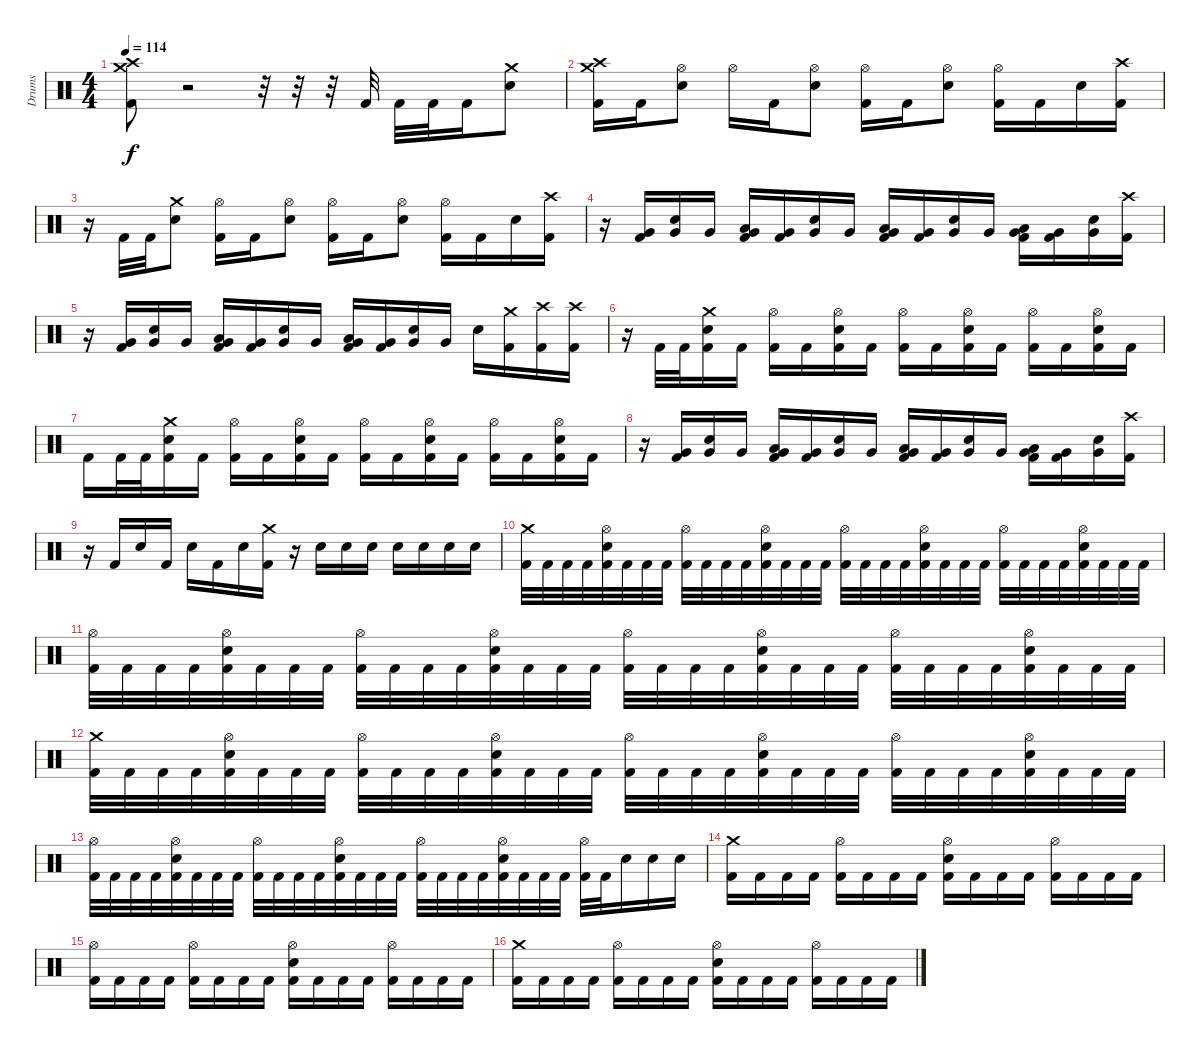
\track ("Drums" "Drums") {instrument percussion}
\staff {score}
\articulation defaults
\ts (4 4)
\tempo 114
\clef neutral
\ks c
("Crash high (hit)" "Crash medium (hit)" "Kick (hit) 2").8{dy f} r.2 r.32 r.32 r.32 "Kick (hit) 2".32 "Kick (hit) 2".32 "Kick (hit) 2".32 "Kick (hit) 2".16 ("Crash medium (hit)" "Snare (hit) 2").8 |
("Crash high (hit)" "Crash medium (hit)" "Kick (hit) 2").16 "Kick (hit) 2".16 ("Hi-Hat (open)" "Snare (hit) 2").8 "Hi-Hat (open)".16 "Kick (hit) 2".16 ("Hi-Hat (open)" "Snare (hit) 2").8 ("Hi-Hat (open)" "Kick (hit) 2").16 "Kick (hit) 2".16 ("Hi-Hat (open)" "Snare (hit) 2").8 ("Hi-Hat (open)" "Kick (hit) 2").16 "Kick (hit) 2".16 "Snare (hit) 2".16 ("Crash high (hit)" "Kick (hit) 2").16 |
r.16 "Kick (hit) 2".32 "Kick (hit) 2".32 ("Crash medium (hit)" "Snare (hit) 2").8 ("Hi-Hat (open)" "Kick (hit) 2").16 "Kick (hit) 2".16 ("Hi-Hat (open)" "Snare (hit) 2").8 ("Hi-Hat (open)" "Kick (hit) 2").16 "Kick (hit) 2".16 ("Hi-Hat (open)" "Snare (hit) 2").8 ("Hi-Hat (open)" "Kick (hit) 2").16 "Kick (hit) 2".16 "Snare (hit) 2".16 ("Crash high (hit)" "Kick (hit) 2").16 |
r.16 ("Very Low Tom (hit)" "Kick (hit) 2").16 ("Very Low Tom (hit)" "Snare (hit) 2").16 "Very Low Tom (hit)".16 ("Very Low Tom (hit)" "Low Tom (hit)" "Kick (hit) 2").16 ("Very Low Tom (hit)" "Kick (hit) 2").16 ("Very Low Tom (hit)" "Snare (hit) 2").16 "Very Low Tom (hit)".16 ("Very Low Tom (hit)" "Low Tom (hit)" "Kick (hit) 2").16 ("Very Low Tom (hit)" "Kick (hit) 2").16 ("Very Low Tom (hit)" "Snare (hit) 2").16 "Very Low Tom (hit)".16 ("Very Low Tom (hit)" "Low Tom (hit)" "Kick (hit) 2").16 ("Very Low Tom (hit)" "Kick (hit) 2").16 ("Very Low Tom (hit)" "Snare (hit) 2").16 ("Crash high (hit)" "Kick (hit) 2").16 |
r.16 ("Very Low Tom (hit)" "Kick (hit) 2").16 ("Very Low Tom (hit)" "Snare (hit) 2").16 "Very Low Tom (hit)".16 ("Very Low Tom (hit)" "Low Tom (hit)" "Kick (hit) 2").16 ("Very Low Tom (hit)" "Kick (hit) 2").16 ("Very Low Tom (hit)" "Snare (hit) 2").16 "Very Low Tom (hit)".16 ("Very Low Tom (hit)" "Low Tom (hit)" "Kick (hit) 2").16 ("Very Low Tom (hit)" "Kick (hit) 2").16 ("Very Low Tom (hit)" "Snare (hit) 2").16 "Very Low Tom (hit)".16 "Snare (hit) 2".16 ("Crash medium (hit)" "Kick (hit) 2").16 ("Crash high (hit)" "Kick (hit) 2").16 ("Crash high (hit)" "Kick (hit) 2").16 |
r.16 "Kick (hit) 2".32 "Kick (hit) 2".32 ("Crash medium (hit)" "Snare (hit) 2" "Kick (hit) 2").16 "Kick (hit) 2".16 ("Hi-Hat (open)" "Kick (hit) 2").16 "Kick (hit) 2".16 ("Hi-Hat (open)" "Snare (hit) 2" "Kick (hit) 2").16 "Kick (hit) 2".16 ("Hi-Hat (open)" "Kick (hit) 2").16 "Kick (hit) 2".16 ("Hi-Hat (open)" "Snare (hit) 2" "Kick (hit) 2").16 "Kick (hit) 2".16 ("Hi-Hat (open)" "Kick (hit) 2").16 "Kick (hit) 2".16 ("Hi-Hat (open)" "Snare (hit) 2" "Kick (hit) 2").16 "Kick (hit) 2".16 |
"Kick (hit) 2".16 "Kick (hit) 2".32 "Kick (hit) 2".32 ("Crash medium (hit)" "Snare (hit) 2" "Kick (hit) 2").16 "Kick (hit) 2".16 ("Hi-Hat (open)" "Kick (hit) 2").16 "Kick (hit) 2".16 ("Hi-Hat (open)" "Snare (hit) 2" "Kick (hit) 2").16 "Kick (hit) 2".16 ("Hi-Hat (open)" "Kick (hit) 2").16 "Kick (hit) 2".16 ("Hi-Hat (open)" "Snare (hit) 2" "Kick (hit) 2").16 "Kick (hit) 2".16 ("Hi-Hat (open)" "Kick (hit) 2").16 "Kick (hit) 2".16 ("Hi-Hat (open)" "Snare (hit) 2" "Kick (hit) 2").16 "Kick (hit) 2".16 |
r.16 ("Very Low Tom (hit)" "Kick (hit) 2").16 ("Very Low Tom (hit)" "Snare (hit) 2").16 "Very Low Tom (hit)".16 ("Very Low Tom (hit)" "Low Tom (hit)" "Kick (hit) 2").16 ("Very Low Tom (hit)" "Kick (hit) 2").16 ("Very Low Tom (hit)" "Snare (hit) 2").16 "Very Low Tom (hit)".16 ("Very Low Tom (hit)" "Low Tom (hit)" "Kick (hit) 2").16 ("Very Low Tom (hit)" "Kick (hit) 2").16 ("Very Low Tom (hit)" "Snare (hit) 2").16 "Very Low Tom (hit)".16 ("Very Low Tom (hit)" "Low Tom (hit)" "Kick (hit) 2").16 ("Very Low Tom (hit)" "Kick (hit) 2").16 ("Very Low Tom (hit)" "Snare (hit) 2").16 ("Crash high (hit)" "Kick (hit) 2").16 |
r.16 "Kick (hit) 2".16 "Snare (hit) 2".16 "Kick (hit) 2".16 "Snare (hit) 2".16 "Kick (hit) 2".16 "Snare (hit) 2".16 ("Crash medium (hit)" "Kick (hit) 2").16 r.16 "Snare (hit) 2".16 "Snare (hit) 2".16 "Snare (hit) 2".16 "Snare (hit) 2".16 "Snare (hit) 2".16 "Snare (hit) 2".16 "Snare (hit) 2".16 |
("Crash medium (hit)" "Kick (hit) 2").32 "Kick (hit) 2".32 "Kick (hit) 2".32 "Kick (hit) 2".32 ("Hi-Hat (open)" "Snare (hit) 2" "Kick (hit) 2").32 "Kick (hit) 2".32 "Kick (hit) 2".32 "Kick (hit) 2".32 ("Hi-Hat (open)" "Kick (hit) 2").32 "Kick (hit) 2".32 "Kick (hit) 2".32 "Kick (hit) 2".32 ("Hi-Hat (open)" "Snare (hit) 2" "Kick (hit) 2").32 "Kick (hit) 2".32 "Kick (hit) 2".32 "Kick (hit) 2".32 ("Hi-Hat (open)" "Kick (hit) 2").32 "Kick (hit) 2".32 "Kick (hit) 2".32 "Kick (hit) 2".32 ("Hi-Hat (open)" "Snare (hit) 2" "Kick (hit) 2").32 "Kick (hit) 2".32 "Kick (hit) 2".32 "Kick (hit) 2".32 ("Hi-Hat (open)" "Kick (hit) 2").32 "Kick (hit) 2".32 "Kick (hit) 2".32 "Kick (hit) 2".32 ("Hi-Hat (open)" "Snare (hit) 2" "Kick (hit) 2").32 "Kick (hit) 2".32 "Kick (hit) 2".32 "Kick (hit) 2".32 |
("Hi-Hat (open)" "Kick (hit) 2").32 "Kick (hit) 2".32 "Kick (hit) 2".32 "Kick (hit) 2".32 ("Hi-Hat (open)" "Snare (hit) 2" "Kick (hit) 2").32 "Kick (hit) 2".32 "Kick (hit) 2".32 "Kick (hit) 2".32 ("Hi-Hat (open)" "Kick (hit) 2").32 "Kick (hit) 2".32 "Kick (hit) 2".32 "Kick (hit) 2".32 ("Hi-Hat (open)" "Snare (hit) 2" "Kick (hit) 2").32 "Kick (hit) 2".32 "Kick (hit) 2".32 "Kick (hit) 2".32 ("Hi-Hat (open)" "Kick (hit) 2").32 "Kick (hit) 2".32 "Kick (hit) 2".32 "Kick (hit) 2".32 ("Hi-Hat (open)" "Snare (hit) 2" "Kick (hit) 2").32 "Kick (hit) 2".32 "Kick (hit) 2".32 "Kick (hit) 2".32 ("Hi-Hat (open)" "Kick (hit) 2").32 "Kick (hit) 2".32 "Kick (hit) 2".32 "Kick (hit) 2".32 ("Hi-Hat (open)" "Snare (hit) 2" "Kick (hit) 2").32 "Kick (hit) 2".32 "Kick (hit) 2".32 "Kick (hit) 2".32 |
("Crash medium (hit)" "Kick (hit) 2").32 "Kick (hit) 2".32 "Kick (hit) 2".32 "Kick (hit) 2".32 ("Hi-Hat (open)" "Snare (hit) 2" "Kick (hit) 2").32 "Kick (hit) 2".32 "Kick (hit) 2".32 "Kick (hit) 2".32 ("Hi-Hat (open)" "Kick (hit) 2").32 "Kick (hit) 2".32 "Kick (hit) 2".32 "Kick (hit) 2".32 ("Hi-Hat (open)" "Snare (hit) 2" "Kick (hit) 2").32 "Kick (hit) 2".32 "Kick (hit) 2".32 "Kick (hit) 2".32 ("Hi-Hat (open)" "Kick (hit) 2").32 "Kick (hit) 2".32 "Kick (hit) 2".32 "Kick (hit) 2".32 ("Hi-Hat (open)" "Snare (hit) 2" "Kick (hit) 2").32 "Kick (hit) 2".32 "Kick (hit) 2".32 "Kick (hit) 2".32 ("Hi-Hat (open)" "Kick (hit) 2").32 "Kick (hit) 2".32 "Kick (hit) 2".32 "Kick (hit) 2".32 ("Hi-Hat (open)" "Snare (hit) 2" "Kick (hit) 2").32 "Kick (hit) 2".32 "Kick (hit) 2".32 "Kick (hit) 2".32 |
("Hi-Hat (open)" "Kick (hit) 2").32 "Kick (hit) 2".32 "Kick (hit) 2".32 "Kick (hit) 2".32 ("Hi-Hat (open)" "Snare (hit) 2" "Kick (hit) 2").32 "Kick (hit) 2".32 "Kick (hit) 2".32 "Kick (hit) 2".32 ("Hi-Hat (open)" "Kick (hit) 2").32 "Kick (hit) 2".32 "Kick (hit) 2".32 "Kick (hit) 2".32 ("Hi-Hat (open)" "Snare (hit) 2" "Kick (hit) 2").32 "Kick (hit) 2".32 "Kick (hit) 2".32 "Kick (hit) 2".32 ("Hi-Hat (open)" "Kick (hit) 2").32 "Kick (hit) 2".32 "Kick (hit) 2".32 "Kick (hit) 2".32 ("Hi-Hat (open)" "Snare (hit) 2" "Kick (hit) 2").32 "Kick (hit) 2".32 "Kick (hit) 2".32 "Kick (hit) 2".32 ("Hi-Hat (open)" "Kick (hit) 2").32 "Kick (hit) 2".32 "Snare (hit) 2".16 "Snare (hit) 2".16 "Snare (hit) 2".16 |
("Crash medium (hit)" "Kick (hit) 2").16 "Kick (hit) 2".16 "Kick (hit) 2".16 "Kick (hit) 2".16 ("Hi-Hat (open)" "Kick (hit) 2").16 "Kick (hit) 2".16 "Kick (hit) 2".16 "Kick (hit) 2".16 ("Hi-Hat (open)" "Snare (hit) 2" "Kick (hit) 2").16 "Kick (hit) 2".16 "Kick (hit) 2".16 "Kick (hit) 2".16 ("Hi-Hat (open)" "Kick (hit) 2").16 "Kick (hit) 2".16 "Kick (hit) 2".16 "Kick (hit) 2".16 |
("Hi-Hat (open)" "Kick (hit) 2").16 "Kick (hit) 2".16 "Kick (hit) 2".16 "Kick (hit) 2".16 ("Hi-Hat (open)" "Kick (hit) 2").16 "Kick (hit) 2".16 "Kick (hit) 2".16 "Kick (hit) 2".16 ("Hi-Hat (open)" "Snare (hit) 2" "Kick (hit) 2").16 "Kick (hit) 2".16 "Kick (hit) 2".16 "Kick (hit) 2".16 ("Hi-Hat (open)" "Kick (hit) 2").16 "Kick (hit) 2".16 "Kick (hit) 2".16 "Kick (hit) 2".16 |
("Crash medium (hit)" "Kick (hit) 2").16 "Kick (hit) 2".16 "Kick (hit) 2".16 "Kick (hit) 2".16 ("Hi-Hat (open)" "Kick (hit) 2").16 "Kick (hit) 2".16 "Kick (hit) 2".16 "Kick (hit) 2".16 ("Hi-Hat (open)" "Snare (hit) 2" "Kick (hit) 2").16 "Kick (hit) 2".16 "Kick (hit) 2".16 "Kick (hit) 2".16 ("Hi-Hat (open)" "Kick (hit) 2").16 "Kick (hit) 2".16 "Kick (hit) 2".16 "Kick (hit) 2".16
